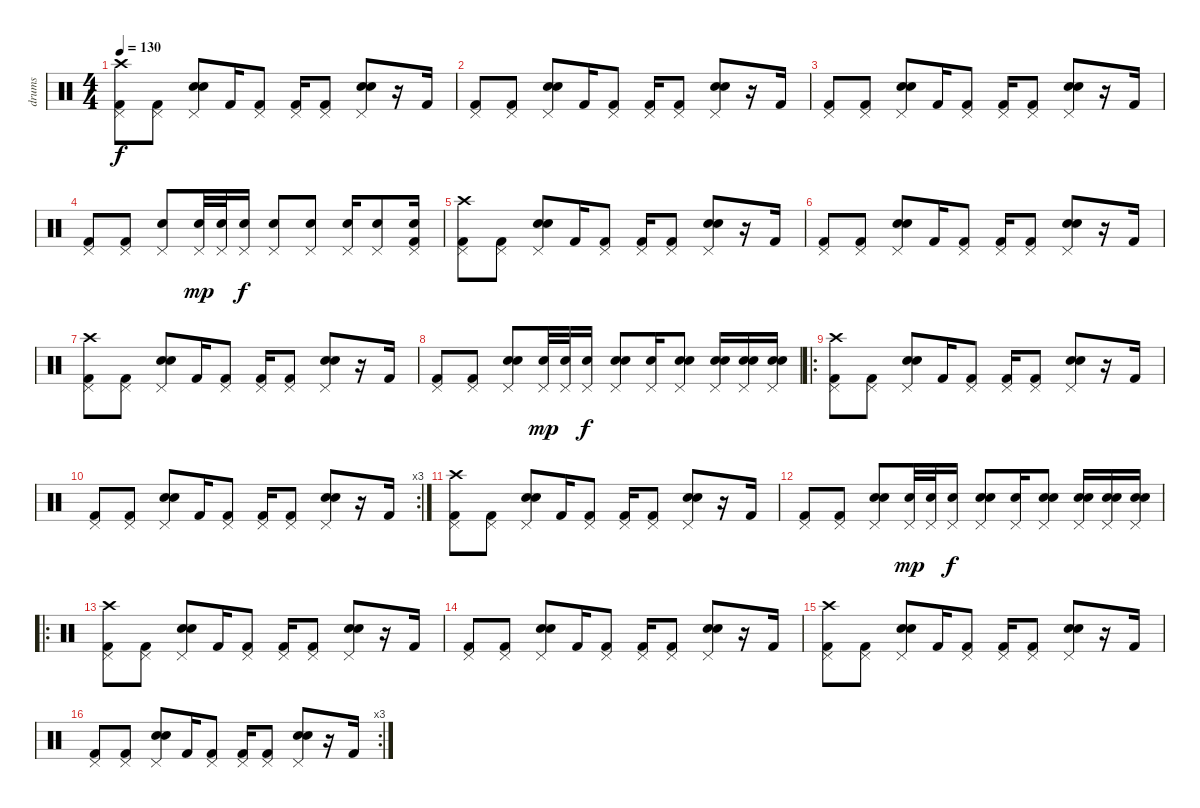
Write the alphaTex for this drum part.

\track ("drums" "drums") {instrument percussion}
\staff {score}
\articulation defaults
\ts (4 4)
\tempo 130
\clef neutral
\ks c
("Crash high (hit)" "Kick (hit) 2" "Pedal Hi-Hat (hit)").8{dy f} ("Kick (hit) 2" "Pedal Hi-Hat (hit)").8 ("Electric Snare (hit)" "Snare (hit) 2" "Pedal Hi-Hat (hit)").8 "Kick (hit) 2".16 ("Kick (hit) 2" "Pedal Hi-Hat (hit)").8 ("Kick (hit) 2" "Pedal Hi-Hat (hit)").16 ("Kick (hit) 2" "Pedal Hi-Hat (hit)").8 ("Electric Snare (hit)" "Snare (hit) 2" "Pedal Hi-Hat (hit)").8 r.16 "Kick (hit) 2".16 |
("Kick (hit) 2" "Pedal Hi-Hat (hit)").8 ("Kick (hit) 2" "Pedal Hi-Hat (hit)").8 ("Electric Snare (hit)" "Snare (hit) 2" "Pedal Hi-Hat (hit)").8 "Kick (hit) 2".16 ("Kick (hit) 2" "Pedal Hi-Hat (hit)").8 ("Kick (hit) 2" "Pedal Hi-Hat (hit)").16 ("Kick (hit) 2" "Pedal Hi-Hat (hit)").8 ("Electric Snare (hit)" "Snare (hit) 2" "Pedal Hi-Hat (hit)").8 r.16 "Kick (hit) 2".16 |
("Kick (hit) 2" "Pedal Hi-Hat (hit)").8 ("Kick (hit) 2" "Pedal Hi-Hat (hit)").8 ("Electric Snare (hit)" "Snare (hit) 2" "Pedal Hi-Hat (hit)").8 "Kick (hit) 2".16 ("Kick (hit) 2" "Pedal Hi-Hat (hit)").8 ("Kick (hit) 2" "Pedal Hi-Hat (hit)").16 ("Kick (hit) 2" "Pedal Hi-Hat (hit)").8 ("Electric Snare (hit)" "Snare (hit) 2" "Pedal Hi-Hat (hit)").8 r.16 "Kick (hit) 2".16 |
("Kick (hit) 2" "Pedal Hi-Hat (hit)").8 ("Kick (hit) 2" "Pedal Hi-Hat (hit)").8 ("Electric Snare (hit)" "Pedal Hi-Hat (hit)").8 ("Electric Snare (hit)" "Pedal Hi-Hat (hit)").32{dy mp} ("Electric Snare (hit)" "Pedal Hi-Hat (hit)").32 ("Electric Snare (hit)" "Pedal Hi-Hat (hit)").16{dy f} ("Electric Snare (hit)" "Pedal Hi-Hat (hit)").8 ("Electric Snare (hit)" "Pedal Hi-Hat (hit)").8 ("Electric Snare (hit)" "Pedal Hi-Hat (hit)").16 ("Electric Snare (hit)" "Pedal Hi-Hat (hit)").8 ("Kick (hit) 2" "Electric Snare (hit)" "Pedal Hi-Hat (hit)").16 |
("Crash high (hit)" "Kick (hit) 2" "Pedal Hi-Hat (hit)").8 ("Kick (hit) 2" "Pedal Hi-Hat (hit)").8 ("Electric Snare (hit)" "Snare (hit) 2" "Pedal Hi-Hat (hit)").8 "Kick (hit) 2".16 ("Kick (hit) 2" "Pedal Hi-Hat (hit)").8 ("Kick (hit) 2" "Pedal Hi-Hat (hit)").16 ("Kick (hit) 2" "Pedal Hi-Hat (hit)").8 ("Electric Snare (hit)" "Snare (hit) 2" "Pedal Hi-Hat (hit)").8 r.16 "Kick (hit) 2".16 |
("Kick (hit) 2" "Pedal Hi-Hat (hit)").8 ("Kick (hit) 2" "Pedal Hi-Hat (hit)").8 ("Electric Snare (hit)" "Snare (hit) 2" "Pedal Hi-Hat (hit)").8 "Kick (hit) 2".16 ("Kick (hit) 2" "Pedal Hi-Hat (hit)").8 ("Kick (hit) 2" "Pedal Hi-Hat (hit)").16 ("Kick (hit) 2" "Pedal Hi-Hat (hit)").8 ("Electric Snare (hit)" "Snare (hit) 2" "Pedal Hi-Hat (hit)").8 r.16 "Kick (hit) 2".16 |
("Crash high (hit)" "Kick (hit) 2" "Pedal Hi-Hat (hit)").8 ("Kick (hit) 2" "Pedal Hi-Hat (hit)").8 ("Electric Snare (hit)" "Snare (hit) 2" "Pedal Hi-Hat (hit)").8 "Kick (hit) 2".16 ("Kick (hit) 2" "Pedal Hi-Hat (hit)").8 ("Kick (hit) 2" "Pedal Hi-Hat (hit)").16 ("Kick (hit) 2" "Pedal Hi-Hat (hit)").8 ("Electric Snare (hit)" "Snare (hit) 2" "Pedal Hi-Hat (hit)").8 r.16 "Kick (hit) 2".16 |
("Kick (hit) 2" "Pedal Hi-Hat (hit)").8 ("Kick (hit) 2" "Pedal Hi-Hat (hit)").8 ("Electric Snare (hit)" "Snare (hit) 2" "Pedal Hi-Hat (hit)").8 ("Electric Snare (hit)" "Pedal Hi-Hat (hit)").32{dy mp} ("Electric Snare (hit)" "Pedal Hi-Hat (hit)").32 ("Electric Snare (hit)" "Pedal Hi-Hat (hit)").16{dy f} ("Snare (hit) 2" "Electric Snare (hit)" "Pedal Hi-Hat (hit)").8 ("Electric Snare (hit)" "Pedal Hi-Hat (hit)").16 ("Snare (hit) 2" "Electric Snare (hit)" "Pedal Hi-Hat (hit)").8 ("Snare (hit) 2" "Electric Snare (hit)" "Pedal Hi-Hat (hit)").16 ("Snare (hit) 2" "Electric Snare (hit)" "Pedal Hi-Hat (hit)").16 ("Snare (hit) 2" "Electric Snare (hit)" "Pedal Hi-Hat (hit)").16 |
\ro
("Crash high (hit)" "Kick (hit) 2" "Pedal Hi-Hat (hit)").8 ("Kick (hit) 2" "Pedal Hi-Hat (hit)").8 ("Electric Snare (hit)" "Snare (hit) 2" "Pedal Hi-Hat (hit)").8 "Kick (hit) 2".16 ("Kick (hit) 2" "Pedal Hi-Hat (hit)").8 ("Kick (hit) 2" "Pedal Hi-Hat (hit)").16 ("Kick (hit) 2" "Pedal Hi-Hat (hit)").8 ("Electric Snare (hit)" "Snare (hit) 2" "Pedal Hi-Hat (hit)").8 r.16 "Kick (hit) 2".16 |
\rc 3
("Kick (hit) 2" "Pedal Hi-Hat (hit)").8 ("Kick (hit) 2" "Pedal Hi-Hat (hit)").8 ("Electric Snare (hit)" "Snare (hit) 2" "Pedal Hi-Hat (hit)").8 "Kick (hit) 2".16 ("Kick (hit) 2" "Pedal Hi-Hat (hit)").8 ("Kick (hit) 2" "Pedal Hi-Hat (hit)").16 ("Kick (hit) 2" "Pedal Hi-Hat (hit)").8 ("Electric Snare (hit)" "Snare (hit) 2" "Pedal Hi-Hat (hit)").8 r.16 "Kick (hit) 2".16 |
("Crash high (hit)" "Kick (hit) 2" "Pedal Hi-Hat (hit)").8 ("Kick (hit) 2" "Pedal Hi-Hat (hit)").8 ("Electric Snare (hit)" "Snare (hit) 2" "Pedal Hi-Hat (hit)").8 "Kick (hit) 2".16 ("Kick (hit) 2" "Pedal Hi-Hat (hit)").8 ("Kick (hit) 2" "Pedal Hi-Hat (hit)").16 ("Kick (hit) 2" "Pedal Hi-Hat (hit)").8 ("Electric Snare (hit)" "Snare (hit) 2" "Pedal Hi-Hat (hit)").8 r.16 "Kick (hit) 2".16 |
("Kick (hit) 2" "Pedal Hi-Hat (hit)").8 ("Kick (hit) 2" "Pedal Hi-Hat (hit)").8 ("Electric Snare (hit)" "Snare (hit) 2" "Pedal Hi-Hat (hit)").8 ("Electric Snare (hit)" "Pedal Hi-Hat (hit)").32{dy mp} ("Electric Snare (hit)" "Pedal Hi-Hat (hit)").32 ("Electric Snare (hit)" "Pedal Hi-Hat (hit)").16{dy f} ("Snare (hit) 2" "Electric Snare (hit)" "Pedal Hi-Hat (hit)").8 ("Electric Snare (hit)" "Pedal Hi-Hat (hit)").16 ("Snare (hit) 2" "Electric Snare (hit)" "Pedal Hi-Hat (hit)").8 ("Snare (hit) 2" "Electric Snare (hit)" "Pedal Hi-Hat (hit)").16 ("Snare (hit) 2" "Electric Snare (hit)" "Pedal Hi-Hat (hit)").16 ("Snare (hit) 2" "Electric Snare (hit)" "Pedal Hi-Hat (hit)").16 |
\ro
("Crash high (hit)" "Kick (hit) 2" "Pedal Hi-Hat (hit)").8 ("Kick (hit) 2" "Pedal Hi-Hat (hit)").8 ("Electric Snare (hit)" "Snare (hit) 2" "Pedal Hi-Hat (hit)").8 "Kick (hit) 2".16 ("Kick (hit) 2" "Pedal Hi-Hat (hit)").8 ("Kick (hit) 2" "Pedal Hi-Hat (hit)").16 ("Kick (hit) 2" "Pedal Hi-Hat (hit)").8 ("Electric Snare (hit)" "Snare (hit) 2" "Pedal Hi-Hat (hit)").8 r.16 "Kick (hit) 2".16 |
("Kick (hit) 2" "Pedal Hi-Hat (hit)").8 ("Kick (hit) 2" "Pedal Hi-Hat (hit)").8 ("Electric Snare (hit)" "Snare (hit) 2" "Pedal Hi-Hat (hit)").8 "Kick (hit) 2".16 ("Kick (hit) 2" "Pedal Hi-Hat (hit)").8 ("Kick (hit) 2" "Pedal Hi-Hat (hit)").16 ("Kick (hit) 2" "Pedal Hi-Hat (hit)").8 ("Electric Snare (hit)" "Snare (hit) 2" "Pedal Hi-Hat (hit)").8 r.16 "Kick (hit) 2".16 |
("Crash high (hit)" "Kick (hit) 2" "Pedal Hi-Hat (hit)").8 ("Kick (hit) 2" "Pedal Hi-Hat (hit)").8 ("Electric Snare (hit)" "Snare (hit) 2" "Pedal Hi-Hat (hit)").8 "Kick (hit) 2".16 ("Kick (hit) 2" "Pedal Hi-Hat (hit)").8 ("Kick (hit) 2" "Pedal Hi-Hat (hit)").16 ("Kick (hit) 2" "Pedal Hi-Hat (hit)").8 ("Electric Snare (hit)" "Snare (hit) 2" "Pedal Hi-Hat (hit)").8 r.16 "Kick (hit) 2".16 |
\rc 3
("Kick (hit) 2" "Pedal Hi-Hat (hit)").8 ("Kick (hit) 2" "Pedal Hi-Hat (hit)").8 ("Electric Snare (hit)" "Snare (hit) 2" "Pedal Hi-Hat (hit)").8 "Kick (hit) 2".16 ("Kick (hit) 2" "Pedal Hi-Hat (hit)").8 ("Kick (hit) 2" "Pedal Hi-Hat (hit)").16 ("Kick (hit) 2" "Pedal Hi-Hat (hit)").8 ("Electric Snare (hit)" "Snare (hit) 2" "Pedal Hi-Hat (hit)").8 r.16 "Kick (hit) 2".16
